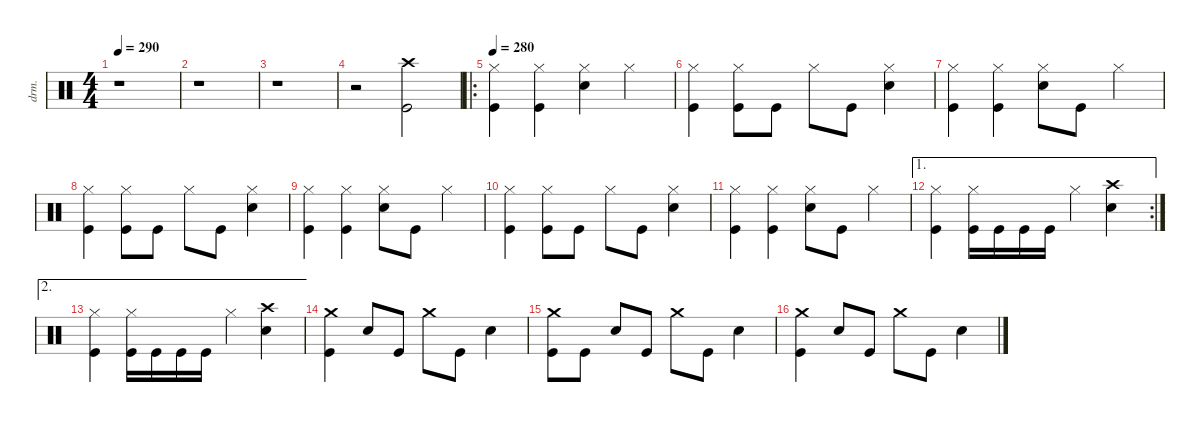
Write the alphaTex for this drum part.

\defaultSystemsLayout 4
\hideDynamics
\bracketExtendMode nobrackets
\otherSystemsTrackNameOrientation horizontal
\track ("Nick Menza" "drm.") {defaultSystemsLayout 4 instrument percussion}
\staff {score}
\articulation defaults
\ts (4 4)
\tempo 290
\clef neutral
\ks c
r.1{dy f beam Down} |
r.1{beam Down} |
r.1{beam Down} |
r.2{beam Down} ("Crash high (hit)" "Kick (hit)").2{beam Down} |
\ro
\tempo 280
("Hi-Hat (closed)" "Kick (hit)").4{beam Down} ("Hi-Hat (closed)" "Kick (hit)").4{beam Down} ("Hi-Hat (closed)" "Snare (hit) 2").4{beam Down} "Hi-Hat (closed)".4{beam Down} |
("Hi-Hat (closed)" "Kick (hit)").4{beam Down} ("Hi-Hat (closed)" "Kick (hit)").8{beam Down} "Kick (hit)".8{beam Down} "Hi-Hat (closed)".8{beam Down} "Kick (hit)".8{beam Down} ("Hi-Hat (closed)" "Snare (hit) 2").4{beam Down} |
("Hi-Hat (closed)" "Kick (hit)").4{beam Down} ("Hi-Hat (closed)" "Kick (hit)").4{beam Down} ("Hi-Hat (closed)" "Snare (hit) 2").8{beam Down} "Kick (hit)".8{beam Down} "Hi-Hat (closed)".4{beam Down} |
("Hi-Hat (closed)" "Kick (hit)").4{beam Down} ("Hi-Hat (closed)" "Kick (hit)").8{beam Down} "Kick (hit)".8{beam Down} "Hi-Hat (closed)".8{beam Down} "Kick (hit)".8{beam Down} ("Hi-Hat (closed)" "Snare (hit) 2").4{beam Down} |
("Hi-Hat (closed)" "Kick (hit)").4{beam Down} ("Hi-Hat (closed)" "Kick (hit)").4{beam Down} ("Hi-Hat (closed)" "Snare (hit) 2").8{beam Down} "Kick (hit)".8{beam Down} "Hi-Hat (closed)".4{beam Down} |
("Hi-Hat (closed)" "Kick (hit)").4{beam Down} ("Hi-Hat (closed)" "Kick (hit)").8{beam Down} "Kick (hit)".8{beam Down} "Hi-Hat (closed)".8{beam Down} "Kick (hit)".8{beam Down} ("Hi-Hat (closed)" "Snare (hit) 2").4{beam Down} |
("Hi-Hat (closed)" "Kick (hit)").4{beam Down} ("Hi-Hat (closed)" "Kick (hit)").4{beam Down} ("Hi-Hat (closed)" "Snare (hit) 2").8{beam Down} "Kick (hit)".8{beam Down} "Hi-Hat (closed)".4{beam Down} |
\ae 1
\rc 2
("Hi-Hat (closed)" "Kick (hit)").4{beam Down} ("Hi-Hat (closed)" "Kick (hit)").16{beam Down} "Kick (hit)".16{beam Down} "Kick (hit)".16{beam Down} "Kick (hit)".16{beam Down} "Hi-Hat (closed)".4{beam Down} ("Crash high (hit)" "Snare (hit) 2").4{beam Down} |
\ae 2
("Hi-Hat (closed)" "Kick (hit)").4{beam Down} ("Hi-Hat (closed)" "Kick (hit)").16{beam Down} "Kick (hit)".16{beam Down} "Kick (hit)".16{beam Down} "Kick (hit)".16{beam Down} "Hi-Hat (closed)".4{beam Down} ("Crash high (hit)" "Snare (hit) 2").4{beam Down} |
("Crash medium (hit)" "Kick (hit)").4{beam Down} "Snare (hit) 2".8{beam Up} "Kick (hit)".8{beam Up} "Crash medium (hit)".8{beam Down} "Kick (hit)".8{beam Down} "Snare (hit) 2".4{beam Down} |
("Crash medium (hit)" "Kick (hit)").8{beam Down} "Kick (hit)".8{beam Down} "Snare (hit) 2".8{beam Up} "Kick (hit)".8{beam Up} "Crash medium (hit)".8{beam Down} "Kick (hit)".8{beam Down} "Snare (hit) 2".4{beam Down} |
("Crash medium (hit)" "Kick (hit)").4{beam Down} "Snare (hit) 2".8{beam Up} "Kick (hit)".8{beam Up} "Crash medium (hit)".8{beam Down} "Kick (hit)".8{beam Down} "Snare (hit) 2".4{beam Down}
